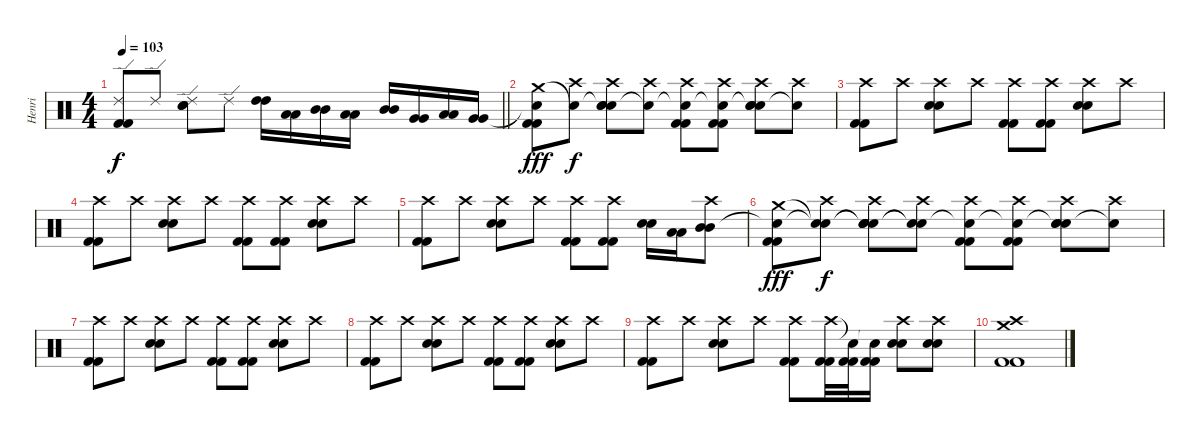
\track ("Henri" "Henri") {instrument percussion}
\staff {score}
\articulation defaults
\ts (4 4)
\tempo 103
\clef neutral
\barLineRight lightlight
\ks c
("Ride (edge) 2" "Kick (hit) 2" "Kick (hit) 2").8{dy f} "Ride (edge) 2".8 ("Ride (edge) 2" "Snare (hit) 2" "Snare (hit) 2").8 "Ride (edge) 2".8 ("High Tom (hit)" "High Tom (hit)").16 ("Low Tom (hit)" "Low Tom (hit)").16 ("Mid Tom (hit)" "Mid Tom (hit)").16 ("Low Tom (hit)" "Low Tom (hit)").16 ("Mid Tom (hit)" "Mid Tom (hit)").16 ("Very Low Tom (hit)" "Very Low Tom (hit)").16 ("Low Tom (hit)" "Low Tom (hit)").16 ("Very Low Tom (hit)" "Very Low Tom (hit)").16 |
("Crash medium (hit)" "Snare (hit)"{t} "Kick (hit) 2" "Kick (hit) 2").8{dy fff} ("Snare (hit)"{t} "Crash high (hit)").8{dy f} ("Snare (hit)"{t} "Crash high (hit)" "Snare (hit) 2" "Snare (hit) 2").8 ("Snare (hit)"{t} "Crash high (hit)").8 ("Snare (hit)"{t} "Crash high (hit)" "Kick (hit) 2" "Kick (hit) 2").8 ("Snare (hit)"{t} "Crash high (hit)" "Kick (hit) 2" "Kick (hit) 2").8 ("Snare (hit)"{t} "Crash high (hit)" "Snare (hit) 2" "Snare (hit) 2").8 ("Snare (hit)"{t} "Crash high (hit)").8 |
("Crash high (hit)" "Kick (hit) 2" "Kick (hit) 2").8 "Crash high (hit)".8 ("Crash high (hit)" "Snare (hit) 2" "Snare (hit) 2").8 "Crash high (hit)".8 ("Crash high (hit)" "Kick (hit) 2" "Kick (hit) 2").8 ("Crash high (hit)" "Kick (hit) 2" "Kick (hit) 2").8 ("Crash high (hit)" "Snare (hit) 2" "Snare (hit) 2").8 "Crash high (hit)".8 |
("Crash high (hit)" "Kick (hit) 2" "Kick (hit) 2").8 "Crash high (hit)".8 ("Crash high (hit)" "Snare (hit) 2" "Snare (hit) 2").8 "Crash high (hit)".8 ("Crash high (hit)" "Kick (hit) 2" "Kick (hit) 2").8 ("Crash high (hit)" "Kick (hit) 2" "Kick (hit) 2").8 ("Crash high (hit)" "Snare (hit) 2" "Snare (hit) 2").8 "Crash high (hit)".8 |
("Crash high (hit)" "Kick (hit) 2" "Kick (hit) 2").8 "Crash high (hit)".8 ("Crash high (hit)" "Snare (hit) 2" "Snare (hit) 2").8 "Crash high (hit)".8 ("Crash high (hit)" "Kick (hit) 2" "Kick (hit) 2").8 ("Crash high (hit)" "Kick (hit) 2" "Kick (hit) 2").8 ("Snare (hit) 2" "Snare (hit) 2").16 ("Low Tom (hit)" "Low Tom (hit)").16 ("Crash high (hit)" "Mid Tom (hit)" "Mid Tom (hit)").8 |
("Crash medium (hit)" "Snare (hit)"{t} "Kick (hit) 2" "Kick (hit) 2").8{dy fff} ("Snare (hit)"{t} "Snare (hit)"{t} "Crash high (hit)").8{dy f} ("Snare (hit)"{t} "Snare (hit)"{t} "Crash high (hit)" "Snare (hit) 2" "Snare (hit) 2").8 ("Snare (hit)"{t} "Snare (hit)"{t} "Crash high (hit)").8 ("Snare (hit)"{t} "Crash high (hit)" "Kick (hit) 2" "Kick (hit) 2").8 ("Snare (hit)"{t} "Crash high (hit)" "Kick (hit) 2" "Kick (hit) 2").8 ("Snare (hit)"{t} "Crash high (hit)" "Snare (hit) 2" "Snare (hit) 2").8 ("Snare (hit)"{t} "Crash high (hit)").8 |
("Crash high (hit)" "Kick (hit) 2" "Kick (hit) 2").8 "Crash high (hit)".8 ("Crash high (hit)" "Snare (hit) 2" "Snare (hit) 2").8 "Crash high (hit)".8 ("Crash high (hit)" "Kick (hit) 2" "Kick (hit) 2").8 ("Crash high (hit)" "Kick (hit) 2" "Kick (hit) 2").8 ("Crash high (hit)" "Snare (hit) 2" "Snare (hit) 2").8 "Crash high (hit)".8 |
("Crash high (hit)" "Kick (hit) 2" "Kick (hit) 2").8 "Crash high (hit)".8 ("Crash high (hit)" "Snare (hit) 2" "Snare (hit) 2").8 "Crash high (hit)".8 ("Crash high (hit)" "Kick (hit) 2" "Kick (hit) 2").8 ("Crash high (hit)" "Kick (hit) 2" "Kick (hit) 2").8 ("Crash high (hit)" "Snare (hit) 2" "Snare (hit) 2").8 "Crash high (hit)".8 |
("Crash high (hit)" "Kick (hit) 2" "Kick (hit) 2").8 "Crash high (hit)".8 ("Crash high (hit)" "Snare (hit) 2" "Snare (hit) 2").8 "Crash high (hit)".8 ("Crash high (hit)" "Kick (hit) 2" "Kick (hit) 2").8 ("Crash high (hit)" "Kick (hit) 2" "Kick (hit) 2").32 ("Snare (hit)"{t} "Kick (hit) 2" "Kick (hit) 2").32 ("Snare (hit)"{t} "Kick (hit) 2" "Kick (hit) 2").16 ("Crash high (hit)" "Snare (hit) 2" "Snare (hit) 2").8 ("Crash high (hit)" "Snare (hit) 2" "Snare (hit) 2").8 |
("Crash high (hit)" "Crash medium (hit)" "Kick (hit) 2" "Kick (hit) 2").1
